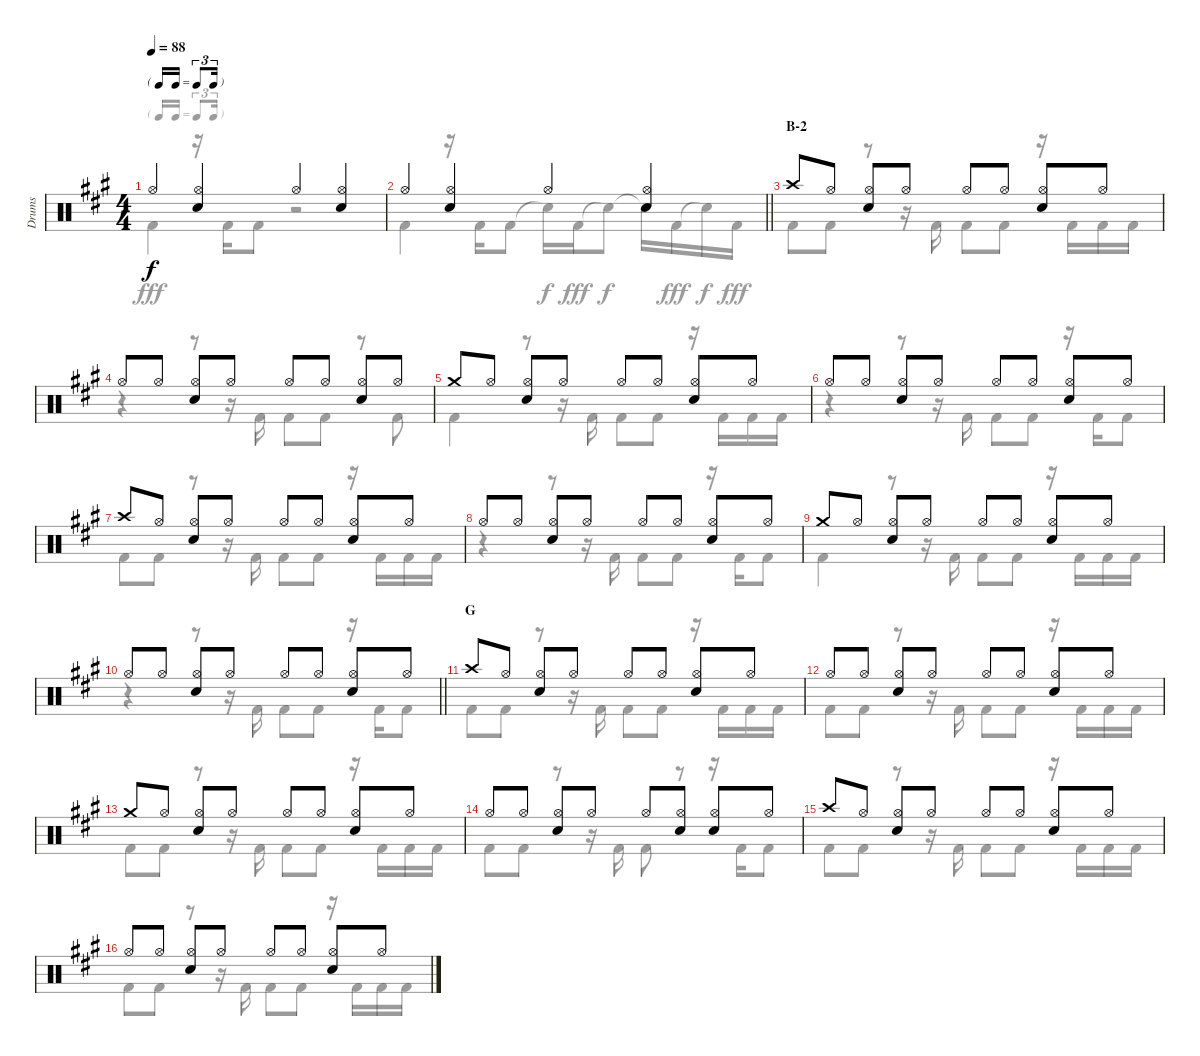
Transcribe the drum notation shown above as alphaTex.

\track ("Drums" "Drums") {instrument percussion}
\staff {score}
\articulation defaults
\voice
\ts (4 4)
\tf triplet16th
\tempo 88
\clef neutral
\ks a "Hi-Hat (open)".4{dy f}
("Hi-Hat (open)" "Snare (hit) 2").4 "Hi-Hat (open)".4 ("Hi-Hat (open)" "Snare (hit) 2").4 |
\barLineRight lightlight "Hi-Hat (open)".4
("Hi-Hat (open)" "Snare (hit) 2").4 "Hi-Hat (open)".4 ("Hi-Hat (open)" "Snare (hit) 2").4 |
\section ("" "B-2")
"Crash high (hit)".8 "Hi-Hat (open)".8 ("Hi-Hat (open)" "Snare (hit) 2").8 "Hi-Hat (open)".8 "Hi-Hat (open)".8 "Hi-Hat (open)".8 ("Hi-Hat (open)" "Snare (hit) 2").8 "Hi-Hat (open)".8 |
"Hi-Hat (open)".8 "Hi-Hat (open)".8 ("Hi-Hat (open)" "Snare (hit) 2").8 "Hi-Hat (open)".8 "Hi-Hat (open)".8 "Hi-Hat (open)".8 ("Hi-Hat (open)" "Snare (hit) 2").8 "Hi-Hat (open)".8 |
"Crash medium (hit)".8 "Hi-Hat (open)".8 ("Hi-Hat (open)" "Snare (hit) 2").8 "Hi-Hat (open)".8 "Hi-Hat (open)".8 "Hi-Hat (open)".8 ("Hi-Hat (open)" "Snare (hit) 2").8 "Hi-Hat (open)".8 |
"Hi-Hat (open)".8 "Hi-Hat (open)".8 ("Hi-Hat (open)" "Snare (hit) 2").8 "Hi-Hat (open)".8 "Hi-Hat (open)".8 "Hi-Hat (open)".8 ("Hi-Hat (open)" "Snare (hit) 2").8 "Hi-Hat (open)".8 |
"Crash high (hit)".8 "Hi-Hat (open)".8 ("Hi-Hat (open)" "Snare (hit) 2").8 "Hi-Hat (open)".8 "Hi-Hat (open)".8 "Hi-Hat (open)".8 ("Hi-Hat (open)" "Snare (hit) 2").8 "Hi-Hat (open)".8 |
"Hi-Hat (open)".8 "Hi-Hat (open)".8 ("Hi-Hat (open)" "Snare (hit) 2").8 "Hi-Hat (open)".8 "Hi-Hat (open)".8 "Hi-Hat (open)".8 ("Hi-Hat (open)" "Snare (hit) 2").8 "Hi-Hat (open)".8 |
"Crash medium (hit)".8 "Hi-Hat (open)".8 ("Hi-Hat (open)" "Snare (hit) 2").8 "Hi-Hat (open)".8 "Hi-Hat (open)".8 "Hi-Hat (open)".8 ("Hi-Hat (open)" "Snare (hit) 2").8 "Hi-Hat (open)".8 |
\barLineRight lightlight "Hi-Hat (open)".8 "Hi-Hat (open)".8
("Hi-Hat (open)" "Snare (hit) 2").8 "Hi-Hat (open)".8 "Hi-Hat (open)".8 "Hi-Hat (open)".8 ("Hi-Hat (open)" "Snare (hit) 2").8 "Hi-Hat (open)".8 |
\section ("" "G")
"Crash high (hit)".8 "Hi-Hat (open)".8 ("Hi-Hat (open)" "Snare (hit) 2").8 "Hi-Hat (open)".8 "Hi-Hat (open)".8 "Hi-Hat (open)".8 ("Hi-Hat (open)" "Snare (hit) 2").8 "Hi-Hat (open)".8 |
"Hi-Hat (open)".8 "Hi-Hat (open)".8 ("Hi-Hat (open)" "Snare (hit) 2").8 "Hi-Hat (open)".8 "Hi-Hat (open)".8 "Hi-Hat (open)".8 ("Hi-Hat (open)" "Snare (hit) 2").8 "Hi-Hat (open)".8 |
"Crash medium (hit)".8 "Hi-Hat (open)".8 ("Hi-Hat (open)" "Snare (hit) 2").8 "Hi-Hat (open)".8 "Hi-Hat (open)".8 "Hi-Hat (open)".8 ("Hi-Hat (open)" "Snare (hit) 2").8 "Hi-Hat (open)".8 |
"Hi-Hat (open)".8 "Hi-Hat (open)".8 ("Hi-Hat (open)" "Snare (hit) 2").8 "Hi-Hat (open)".8 "Hi-Hat (open)".8 ("Hi-Hat (open)" "Snare (hit) 2").8 ("Hi-Hat (open)" "Snare (hit) 2").8 "Hi-Hat (open)".8 |
"Crash high (hit)".8 "Hi-Hat (open)".8 ("Hi-Hat (open)" "Snare (hit) 2").8 "Hi-Hat (open)".8 "Hi-Hat (open)".8 "Hi-Hat (open)".8 ("Hi-Hat (open)" "Snare (hit) 2").8 "Hi-Hat (open)".8 |
"Hi-Hat (open)".8 "Hi-Hat (open)".8 ("Hi-Hat (open)" "Snare (hit) 2").8 "Hi-Hat (open)".8 "Hi-Hat (open)".8 "Hi-Hat (open)".8 ("Hi-Hat (open)" "Snare (hit) 2").8 "Hi-Hat (open)".8
\voice
\clef neutral
\ottava regular
\simile none
\ks a "Kick (hit) 2".4{dy fff}
r.16 "Kick (hit) 2".16 "Kick (hit) 2".8 r.2 |
\barLineRight lightlight "Kick (hit) 2".4
r.16 "Kick (hit) 2".16 "Kick (hit) 2".8 "Snare (hit)"{t}.16{dy f} "Kick (hit) 2".16{dy fff} "Snare (hit)"{t}.8{dy f} "Snare (hit)"{t}.16 "Kick (hit) 2".16{dy fff} "Snare (hit)"{t}.16{dy f} "Kick (hit) 2".16{dy fff} |
"Kick (hit) 2".8 "Kick (hit) 2".8 r.8 r.16 "Kick (hit) 2".16 "Kick (hit) 2".8 "Kick (hit) 2".8 r.16 "Kick (hit) 2".16 "Kick (hit) 2".16 "Kick (hit) 2".16 |
r.4 r.8 r.16 "Kick (hit) 2".16 "Kick (hit) 2".8 "Kick (hit) 2".8 r.8 "Kick (hit) 2".8 |
"Kick (hit) 2".4 r.8 r.16 "Kick (hit) 2".16 "Kick (hit) 2".8 "Kick (hit) 2".8 r.16 "Kick (hit) 2".16 "Kick (hit) 2".16 "Kick (hit) 2".16 |
r.4 r.8 r.16 "Kick (hit) 2".16 "Kick (hit) 2".8 "Kick (hit) 2".8 r.16 "Kick (hit) 2".16 "Kick (hit) 2".8 |
"Kick (hit) 2".8 "Kick (hit) 2".8 r.8 r.16 "Kick (hit) 2".16 "Kick (hit) 2".8 "Kick (hit) 2".8 r.16 "Kick (hit) 2".16 "Kick (hit) 2".16 "Kick (hit) 2".16 |
r.4 r.8 r.16 "Kick (hit) 2".16 "Kick (hit) 2".8 "Kick (hit) 2".8 r.16 "Kick (hit) 2".16 "Kick (hit) 2".8 |
"Kick (hit) 2".4 r.8 r.16 "Kick (hit) 2".16 "Kick (hit) 2".8 "Kick (hit) 2".8 r.16 "Kick (hit) 2".16 "Kick (hit) 2".16 "Kick (hit) 2".16 |
\barLineRight lightlight
r.4 r.8 r.16 "Kick (hit) 2".16 "Kick (hit) 2".8 "Kick (hit) 2".8 r.16 "Kick (hit) 2".16 "Kick (hit) 2".8 |
"Kick (hit) 2".8 "Kick (hit) 2".8 r.8 r.16 "Kick (hit) 2".16 "Kick (hit) 2".8 "Kick (hit) 2".8 r.16 "Kick (hit) 2".16 "Kick (hit) 2".16 "Kick (hit) 2".16 |
"Kick (hit) 2".8 "Kick (hit) 2".8 r.8 r.16 "Kick (hit) 2".16 "Kick (hit) 2".8 "Kick (hit) 2".8 r.16 "Kick (hit) 2".16 "Kick (hit) 2".16 "Kick (hit) 2".16 |
"Kick (hit) 2".8 "Kick (hit) 2".8 r.8 r.16 "Kick (hit) 2".16 "Kick (hit) 2".8 "Kick (hit) 2".8 r.16 "Kick (hit) 2".16 "Kick (hit) 2".16 "Kick (hit) 2".16 |
"Kick (hit) 2".8 "Kick (hit) 2".8 r.8 r.16 "Kick (hit) 2".16 "Kick (hit) 2".8 r.8 r.16 "Kick (hit) 2".16 "Kick (hit) 2".8 |
"Kick (hit) 2".8 "Kick (hit) 2".8 r.8 r.16 "Kick (hit) 2".16 "Kick (hit) 2".8 "Kick (hit) 2".8 r.16 "Kick (hit) 2".16 "Kick (hit) 2".16 "Kick (hit) 2".16 |
"Kick (hit) 2".8 "Kick (hit) 2".8 r.8 r.16 "Kick (hit) 2".16 "Kick (hit) 2".8 "Kick (hit) 2".8 r.16 "Kick (hit) 2".16 "Kick (hit) 2".16 "Kick (hit) 2".16
